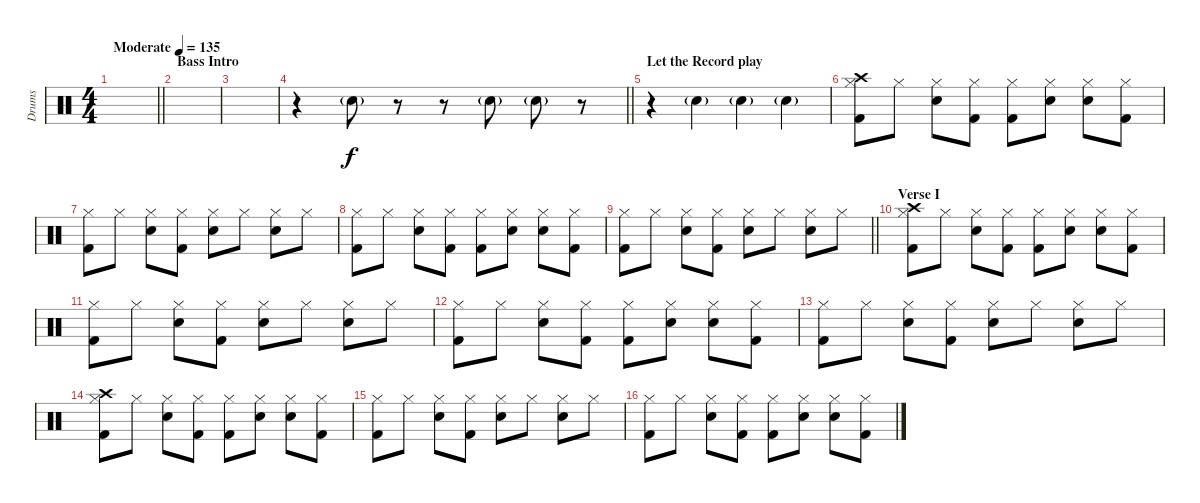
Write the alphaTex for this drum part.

\track ("Drums" "Drums") {instrument percussion}
\staff {score}
\articulation defaults
\ts (4 4)
\tempo (135 "Moderate")
\clef neutral
\barLineRight lightlight
\ks c
|
\section ("" "Bass Intro")
|
|
\barLineRight lightlight
r.4{volume 10} "Electric Snare (hit)"{g}.8 r.8 r.8 "Electric Snare (hit)"{g}.8 "Electric Snare (hit)"{g}.8 r.8 |
\section ("" "Let the Record play")
r.4{volume 13} "Electric Snare (hit)"{g}.4 "Electric Snare (hit)"{g}.4{volume 10} "Electric Snare (hit)"{g}.4{volume 8} |
("Crash high (hit)" "Hi-Hat (closed)" "Kick (hit) 2").8{dy f volume 13} "Hi-Hat (closed)".8 ("Hi-Hat (closed)" "Electric Snare (hit)").8 ("Hi-Hat (closed)" "Kick (hit) 2").8 ("Hi-Hat (closed)" "Kick (hit) 2").8 ("Hi-Hat (closed)" "Electric Snare (hit)").8 ("Hi-Hat (closed)" "Electric Snare (hit)").8 ("Hi-Hat (closed)" "Kick (hit) 2").8 |
("Hi-Hat (closed)" "Kick (hit) 2").8{volume 13} "Hi-Hat (closed)".8 ("Hi-Hat (closed)" "Electric Snare (hit)").8 ("Hi-Hat (closed)" "Kick (hit) 2").8 ("Hi-Hat (closed)" "Electric Snare (hit)").8 "Hi-Hat (closed)".8 ("Hi-Hat (closed)" "Electric Snare (hit)").8 "Hi-Hat (closed)".8 |
("Hi-Hat (closed)" "Kick (hit) 2").8 "Hi-Hat (closed)".8 ("Hi-Hat (closed)" "Electric Snare (hit)").8 ("Hi-Hat (closed)" "Kick (hit) 2").8 ("Hi-Hat (closed)" "Kick (hit) 2").8 ("Hi-Hat (closed)" "Electric Snare (hit)").8 ("Hi-Hat (closed)" "Electric Snare (hit)").8 ("Hi-Hat (closed)" "Kick (hit) 2").8 |
\barLineRight lightlight
("Hi-Hat (closed)" "Kick (hit) 2").8{volume 13} "Hi-Hat (closed)".8 ("Hi-Hat (closed)" "Electric Snare (hit)").8 ("Hi-Hat (closed)" "Kick (hit) 2").8 ("Hi-Hat (closed)" "Electric Snare (hit)").8 "Hi-Hat (closed)".8 ("Hi-Hat (closed)" "Electric Snare (hit)").8 "Hi-Hat (closed)".8 |
\section ("" "Verse I")
("Crash high (hit)" "Hi-Hat (closed)" "Kick (hit) 2").8 "Hi-Hat (closed)".8 ("Hi-Hat (closed)" "Electric Snare (hit)").8 ("Hi-Hat (closed)" "Kick (hit) 2").8 ("Hi-Hat (closed)" "Kick (hit) 2").8 ("Hi-Hat (closed)" "Electric Snare (hit)").8 ("Hi-Hat (closed)" "Electric Snare (hit)").8 ("Hi-Hat (closed)" "Kick (hit) 2").8 |
("Hi-Hat (closed)" "Kick (hit) 2").8{volume 13} "Hi-Hat (closed)".8 ("Hi-Hat (closed)" "Electric Snare (hit)").8 ("Hi-Hat (closed)" "Kick (hit) 2").8 ("Hi-Hat (closed)" "Electric Snare (hit)").8 "Hi-Hat (closed)".8 ("Hi-Hat (closed)" "Electric Snare (hit)").8 "Hi-Hat (closed)".8 |
("Hi-Hat (closed)" "Kick (hit) 2").8 "Hi-Hat (closed)".8 ("Hi-Hat (closed)" "Electric Snare (hit)").8 ("Hi-Hat (closed)" "Kick (hit) 2").8 ("Hi-Hat (closed)" "Kick (hit) 2").8 ("Hi-Hat (closed)" "Electric Snare (hit)").8 ("Hi-Hat (closed)" "Electric Snare (hit)").8 ("Hi-Hat (closed)" "Kick (hit) 2").8 |
("Hi-Hat (closed)" "Kick (hit) 2").8{volume 13} "Hi-Hat (closed)".8 ("Hi-Hat (closed)" "Electric Snare (hit)").8 ("Hi-Hat (closed)" "Kick (hit) 2").8 ("Hi-Hat (closed)" "Electric Snare (hit)").8 "Hi-Hat (closed)".8 ("Hi-Hat (closed)" "Electric Snare (hit)").8 "Hi-Hat (closed)".8 |
("Crash high (hit)" "Hi-Hat (closed)" "Kick (hit) 2").8 "Hi-Hat (closed)".8 ("Hi-Hat (closed)" "Electric Snare (hit)").8 ("Hi-Hat (closed)" "Kick (hit) 2").8 ("Hi-Hat (closed)" "Kick (hit) 2").8 ("Hi-Hat (closed)" "Electric Snare (hit)").8 ("Hi-Hat (closed)" "Electric Snare (hit)").8 ("Hi-Hat (closed)" "Kick (hit) 2").8 |
("Hi-Hat (closed)" "Kick (hit) 2").8{volume 13} "Hi-Hat (closed)".8 ("Hi-Hat (closed)" "Electric Snare (hit)").8 ("Hi-Hat (closed)" "Kick (hit) 2").8 ("Hi-Hat (closed)" "Electric Snare (hit)").8 "Hi-Hat (closed)".8 ("Hi-Hat (closed)" "Electric Snare (hit)").8 "Hi-Hat (closed)".8 |
("Hi-Hat (closed)" "Kick (hit) 2").8 "Hi-Hat (closed)".8 ("Hi-Hat (closed)" "Electric Snare (hit)").8 ("Hi-Hat (closed)" "Kick (hit) 2").8 ("Hi-Hat (closed)" "Kick (hit) 2").8 ("Hi-Hat (closed)" "Electric Snare (hit)").8 ("Hi-Hat (closed)" "Electric Snare (hit)").8 ("Hi-Hat (closed)" "Kick (hit) 2").8
